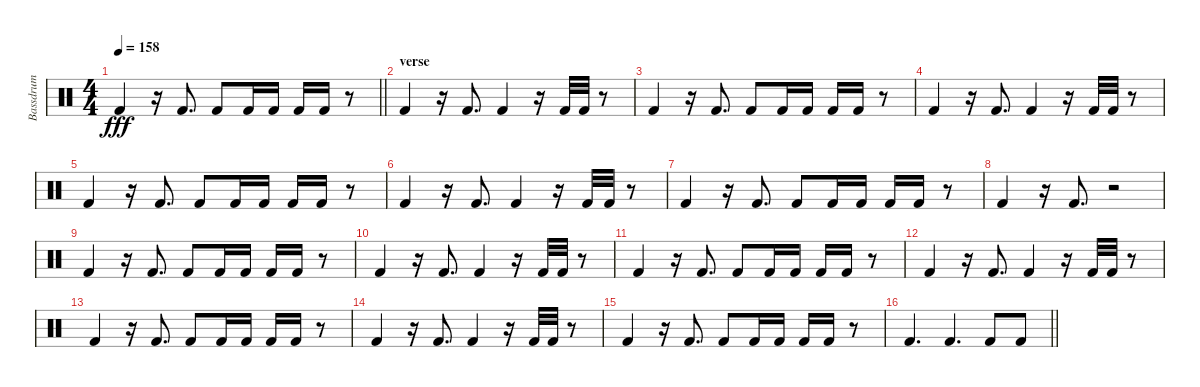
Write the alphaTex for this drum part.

\track ("Bassdrum" "Bassdrum") {instrument percussion}
\staff {score}
\articulation defaults
\ts (4 4)
\section ("" "")
\tempo 158
\clef neutral
\barLineRight lightlight
\ks c "Kick (hit) 2".4{dy fff}
r.16 "Kick (hit) 2".8{d} "Kick (hit) 2".8 "Kick (hit) 2".16 "Kick (hit) 2".16 "Kick (hit) 2".16 "Kick (hit) 2".16 r.8 |
\section ("" "verse")
"Kick (hit) 2".4 r.16 "Kick (hit) 2".8{d} "Kick (hit) 2".4 r.16 "Kick (hit) 2".32 "Kick (hit) 2".32 r.8 |
"Kick (hit) 2".4 r.16 "Kick (hit) 2".8{d} "Kick (hit) 2".8 "Kick (hit) 2".16 "Kick (hit) 2".16 "Kick (hit) 2".16 "Kick (hit) 2".16 r.8 |
"Kick (hit) 2".4 r.16 "Kick (hit) 2".8{d} "Kick (hit) 2".4 r.16 "Kick (hit) 2".32 "Kick (hit) 2".32 r.8 |
"Kick (hit) 2".4 r.16 "Kick (hit) 2".8{d} "Kick (hit) 2".8 "Kick (hit) 2".16 "Kick (hit) 2".16 "Kick (hit) 2".16 "Kick (hit) 2".16 r.8 |
"Kick (hit) 2".4 r.16 "Kick (hit) 2".8{d} "Kick (hit) 2".4 r.16 "Kick (hit) 2".32 "Kick (hit) 2".32 r.8 |
"Kick (hit) 2".4 r.16 "Kick (hit) 2".8{d} "Kick (hit) 2".8 "Kick (hit) 2".16 "Kick (hit) 2".16 "Kick (hit) 2".16 "Kick (hit) 2".16 r.8 |
"Kick (hit) 2".4 r.16 "Kick (hit) 2".8{d} r.2 |
"Kick (hit) 2".4 r.16 "Kick (hit) 2".8{d} "Kick (hit) 2".8 "Kick (hit) 2".16 "Kick (hit) 2".16 "Kick (hit) 2".16 "Kick (hit) 2".16 r.8 |
"Kick (hit) 2".4 r.16 "Kick (hit) 2".8{d} "Kick (hit) 2".4 r.16 "Kick (hit) 2".32 "Kick (hit) 2".32 r.8 |
"Kick (hit) 2".4 r.16 "Kick (hit) 2".8{d} "Kick (hit) 2".8 "Kick (hit) 2".16 "Kick (hit) 2".16 "Kick (hit) 2".16 "Kick (hit) 2".16 r.8 |
"Kick (hit) 2".4 r.16 "Kick (hit) 2".8{d} "Kick (hit) 2".4 r.16 "Kick (hit) 2".32 "Kick (hit) 2".32 r.8 |
"Kick (hit) 2".4 r.16 "Kick (hit) 2".8{d} "Kick (hit) 2".8 "Kick (hit) 2".16 "Kick (hit) 2".16 "Kick (hit) 2".16 "Kick (hit) 2".16 r.8 |
"Kick (hit) 2".4 r.16 "Kick (hit) 2".8{d} "Kick (hit) 2".4 r.16 "Kick (hit) 2".32 "Kick (hit) 2".32 r.8 |
"Kick (hit) 2".4 r.16 "Kick (hit) 2".8{d} "Kick (hit) 2".8 "Kick (hit) 2".16 "Kick (hit) 2".16 "Kick (hit) 2".16 "Kick (hit) 2".16 r.8 |
\barLineRight lightlight "Kick (hit) 2".4{d} "Kick (hit) 2".4{d} "Kick (hit) 2".8 "Kick (hit) 2".8
